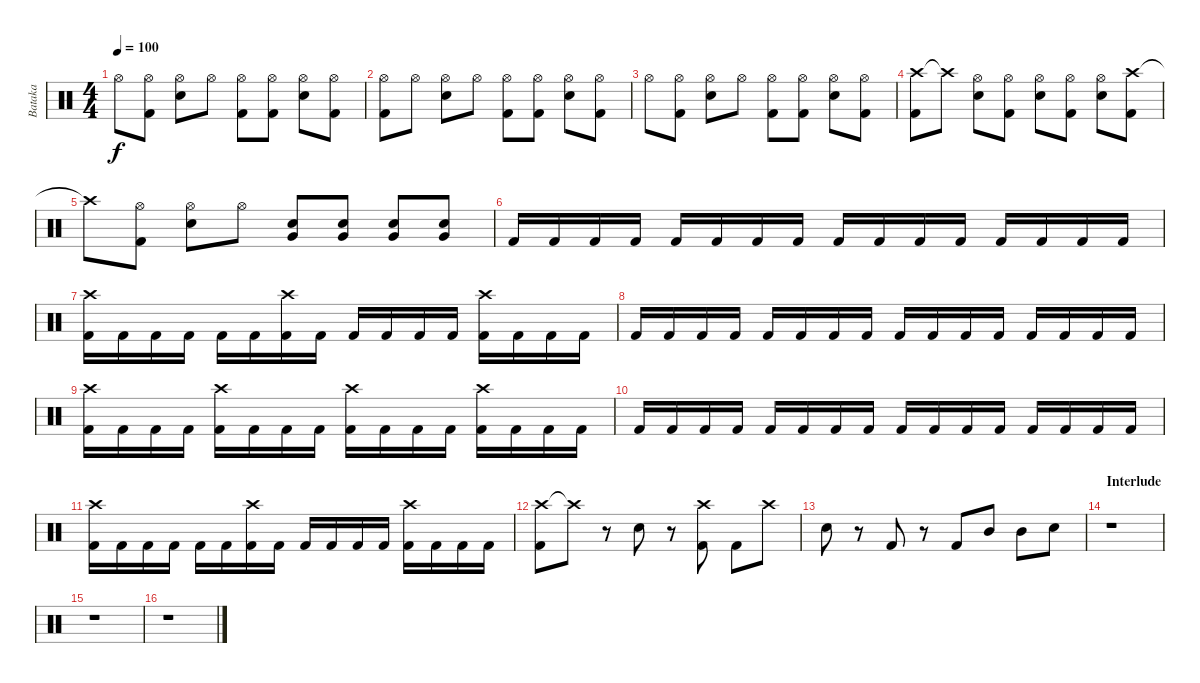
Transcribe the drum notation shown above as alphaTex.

\track ("Bataka" "Bataka") {instrument percussion}
\staff {score}
\articulation defaults
\ts (4 4)
\tempo 100
\clef neutral
\ks c "Hi-Hat (open)".8{dy f}
("Hi-Hat (open)" "Kick (hit) 2").8 ("Hi-Hat (open)" "Snare (hit) 2").8 "Hi-Hat (open)".8 ("Hi-Hat (open)" "Kick (hit) 2").8 ("Hi-Hat (open)" "Kick (hit) 2").8 ("Hi-Hat (open)" "Snare (hit) 2").8 ("Hi-Hat (open)" "Kick (hit) 2").8 |
("Hi-Hat (open)" "Kick (hit) 2").8 "Hi-Hat (open)".8 ("Hi-Hat (open)" "Snare (hit) 2").8 "Hi-Hat (open)".8 ("Hi-Hat (open)" "Kick (hit) 2").8 ("Hi-Hat (open)" "Kick (hit) 2").8 ("Hi-Hat (open)" "Snare (hit) 2").8 ("Hi-Hat (open)" "Kick (hit) 2").8 |
"Hi-Hat (open)".8 ("Hi-Hat (open)" "Kick (hit) 2").8 ("Hi-Hat (open)" "Snare (hit) 2").8 "Hi-Hat (open)".8 ("Hi-Hat (open)" "Kick (hit) 2").8 ("Hi-Hat (open)" "Kick (hit) 2").8 ("Hi-Hat (open)" "Snare (hit) 2").8 ("Hi-Hat (open)" "Kick (hit) 2").8 |
("Crash high (hit)" "Kick (hit) 2").8 "Crash high (hit)"{t}.8 ("Hi-Hat (open)" "Snare (hit) 2").8 ("Hi-Hat (open)" "Kick (hit) 2").8 ("Hi-Hat (open)" "Snare (hit) 2").8 ("Hi-Hat (open)" "Kick (hit) 2").8 ("Hi-Hat (open)" "Snare (hit) 2").8 ("Crash high (hit)" "Kick (hit) 2").8 |
"Crash high (hit)"{t}.8 ("Hi-Hat (open)" "Kick (hit) 2").8 ("Hi-Hat (open)" "Snare (hit) 2").8 "Hi-Hat (open)".8 ("Very Low Tom (hit)" "Snare (hit) 2").8 ("Very Low Tom (hit)" "Snare (hit) 2").8 ("Very Low Tom (hit)" "Snare (hit) 2").8 ("Very Low Tom (hit)" "Snare (hit) 2").8 |
"Kick (hit) 2".16 "Kick (hit) 2".16 "Kick (hit) 2".16 "Kick (hit) 2".16 "Kick (hit) 2".16 "Kick (hit) 2".16 "Kick (hit) 2".16 "Kick (hit) 2".16 "Kick (hit) 2".16 "Kick (hit) 2".16 "Kick (hit) 2".16 "Kick (hit) 2".16 "Kick (hit) 2".16 "Kick (hit) 2".16 "Kick (hit) 2".16 "Kick (hit) 2".16 |
("Crash high (hit)" "Kick (hit) 2").16 "Kick (hit) 2".16 "Kick (hit) 2".16 "Kick (hit) 2".16 "Kick (hit) 2".16 "Kick (hit) 2".16 ("Crash high (hit)" "Kick (hit) 2").16 "Kick (hit) 2".16 "Kick (hit) 2".16 "Kick (hit) 2".16 "Kick (hit) 2".16 "Kick (hit) 2".16 ("Crash high (hit)" "Kick (hit) 2").16 "Kick (hit) 2".16 "Kick (hit) 2".16 "Kick (hit) 2".16 |
"Kick (hit) 2".16 "Kick (hit) 2".16 "Kick (hit) 2".16 "Kick (hit) 2".16 "Kick (hit) 2".16 "Kick (hit) 2".16 "Kick (hit) 2".16 "Kick (hit) 2".16 "Kick (hit) 2".16 "Kick (hit) 2".16 "Kick (hit) 2".16 "Kick (hit) 2".16 "Kick (hit) 2".16 "Kick (hit) 2".16 "Kick (hit) 2".16 "Kick (hit) 2".16 |
("Crash high (hit)" "Kick (hit) 2").16 "Kick (hit) 2".16 "Kick (hit) 2".16 "Kick (hit) 2".16 ("Crash high (hit)" "Kick (hit) 2").16 "Kick (hit) 2".16 "Kick (hit) 2".16 "Kick (hit) 2".16 ("Crash high (hit)" "Kick (hit) 2").16 "Kick (hit) 2".16 "Kick (hit) 2".16 "Kick (hit) 2".16 ("Crash high (hit)" "Kick (hit) 2").16 "Kick (hit) 2".16 "Kick (hit) 2".16 "Kick (hit) 2".16 |
"Kick (hit) 2".16 "Kick (hit) 2".16 "Kick (hit) 2".16 "Kick (hit) 2".16 "Kick (hit) 2".16 "Kick (hit) 2".16 "Kick (hit) 2".16 "Kick (hit) 2".16 "Kick (hit) 2".16 "Kick (hit) 2".16 "Kick (hit) 2".16 "Kick (hit) 2".16 "Kick (hit) 2".16 "Kick (hit) 2".16 "Kick (hit) 2".16 "Kick (hit) 2".16 |
("Crash high (hit)" "Kick (hit) 2").16 "Kick (hit) 2".16 "Kick (hit) 2".16 "Kick (hit) 2".16 "Kick (hit) 2".16 "Kick (hit) 2".16 ("Crash high (hit)" "Kick (hit) 2").16 "Kick (hit) 2".16 "Kick (hit) 2".16 "Kick (hit) 2".16 "Kick (hit) 2".16 "Kick (hit) 2".16 ("Crash high (hit)" "Kick (hit) 2").16 "Kick (hit) 2".16 "Kick (hit) 2".16 "Kick (hit) 2".16 |
("Crash high (hit)" "Kick (hit) 2").8 "Crash high (hit)"{t}.8 r.8 "Snare (hit) 2".8 r.8 ("Crash high (hit)" "Kick (hit) 2").8 "Kick (hit) 2".8 "Crash high (hit)".8 |
"Snare (hit) 2".8 r.8 "Kick (hit) 2".8 r.8 "Kick (hit) 2".8 "Mid Tom (hit)".8 "Mid Tom (hit)".8 "Snare (hit) 2".8 |
\section ("" "Interlude")
r.1 |
r.1 |
r.1
